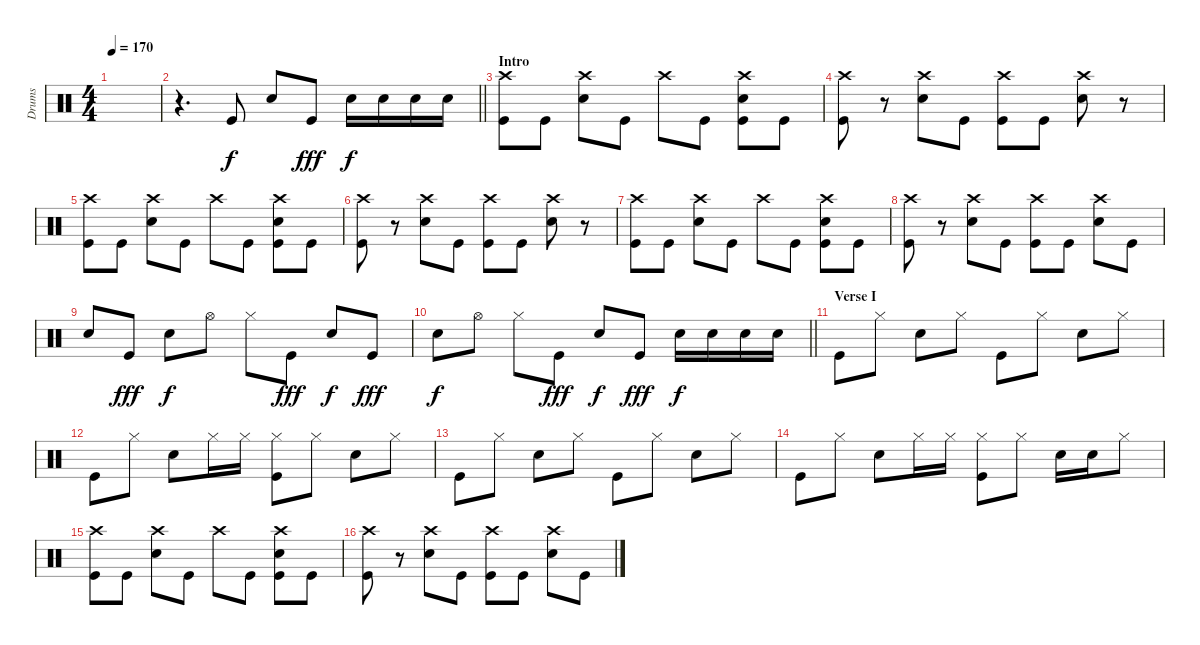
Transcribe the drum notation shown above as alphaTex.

\track ("Drums" "Drums") {instrument percussion}
\staff {score}
\articulation defaults
\ts (4 4)
\tempo 170
\clef neutral
\ks c
|
\barLineRight lightlight
r.4{d} "Kick (hit)".8 "Electric Snare (hit)".8{dy f} "Kick (hit)".8{dy fff} "Electric Snare (hit)".16{dy f} "Electric Snare (hit)".16 "Electric Snare (hit)".16 "Electric Snare (hit)".16 |
\section ("" "Intro")
("Crash high (hit)" "Kick (hit)").8 "Kick (hit)".8 ("Crash high (hit)" "Electric Snare (hit)").8 "Kick (hit)".8 "Crash high (hit)".8 "Kick (hit)".8 ("Crash high (hit)" "Electric Snare (hit)" "Kick (hit)").8 "Kick (hit)".8 |
("Crash high (hit)" "Kick (hit)").8 r.8 ("Crash high (hit)" "Electric Snare (hit)").8 "Kick (hit)".8 ("Crash high (hit)" "Kick (hit)").8 "Kick (hit)".8 ("Crash high (hit)" "Electric Snare (hit)").8 r.8 |
("Crash high (hit)" "Kick (hit)").8 "Kick (hit)".8 ("Crash high (hit)" "Electric Snare (hit)").8 "Kick (hit)".8 "Crash high (hit)".8 "Kick (hit)".8 ("Crash high (hit)" "Electric Snare (hit)" "Kick (hit)").8 "Kick (hit)".8 |
("Crash high (hit)" "Kick (hit)").8 r.8 ("Crash high (hit)" "Electric Snare (hit)").8 "Kick (hit)".8 ("Crash high (hit)" "Kick (hit)").8 "Kick (hit)".8 ("Crash high (hit)" "Electric Snare (hit)").8 r.8 |
("Crash high (hit)" "Kick (hit)").8 "Kick (hit)".8 ("Crash high (hit)" "Electric Snare (hit)").8 "Kick (hit)".8 "Crash high (hit)".8 "Kick (hit)".8 ("Crash high (hit)" "Electric Snare (hit)" "Kick (hit)").8 "Kick (hit)".8 |
("Crash high (hit)" "Kick (hit)").8 r.8 ("Crash high (hit)" "Electric Snare (hit)").8 "Kick (hit)".8 ("Crash high (hit)" "Kick (hit)").8 "Kick (hit)".8 ("Crash high (hit)" "Electric Snare (hit)").8 "Kick (hit)".8 |
"Electric Snare (hit)".8 "Kick (hit)".8{dy fff} "Electric Snare (hit)".8{dy f} "Hi-Hat (open)".8 "Hi-Hat (closed)".8 "Kick (hit)".8{dy fff} "Electric Snare (hit)".8{dy f} "Kick (hit)".8{dy fff} |
\barLineRight lightlight "Electric Snare (hit)".8{dy f} "Hi-Hat (open)".8 "Hi-Hat (closed)".8 "Kick (hit)".8{dy fff} "Electric Snare (hit)".8{dy f} "Kick (hit)".8{dy fff} "Electric Snare (hit)".16{dy f} "Electric Snare (hit)".16 "Electric Snare (hit)".16 "Electric Snare (hit)".16
|
\section ("" "Verse I")
"Kick (hit)".8 "Hi-Hat (closed)".8 "Electric Snare (hit)".8 "Hi-Hat (closed)".8 "Kick (hit)".8 "Hi-Hat (closed)".8 "Electric Snare (hit)".8 "Hi-Hat (closed)".8 |
"Kick (hit)".8 "Hi-Hat (closed)".8 "Electric Snare (hit)".8 "Hi-Hat (closed)".16 "Hi-Hat (closed)".16 ("Hi-Hat (closed)" "Kick (hit)").8 "Hi-Hat (closed)".8 "Electric Snare (hit)".8 "Hi-Hat (closed)".8 |
"Kick (hit)".8 "Hi-Hat (closed)".8 "Electric Snare (hit)".8 "Hi-Hat (closed)".8 "Kick (hit)".8 "Hi-Hat (closed)".8 "Electric Snare (hit)".8 "Hi-Hat (closed)".8 |
"Kick (hit)".8 "Hi-Hat (closed)".8 "Electric Snare (hit)".8 "Hi-Hat (closed)".16 "Hi-Hat (closed)".16 ("Hi-Hat (closed)" "Kick (hit)").8 "Hi-Hat (closed)".8 "Electric Snare (hit)".16 "Electric Snare (hit)".16 "Hi-Hat (closed)".8 |
("Crash high (hit)" "Kick (hit)").8 "Kick (hit)".8 ("Crash high (hit)" "Electric Snare (hit)").8 "Kick (hit)".8 "Crash high (hit)".8 "Kick (hit)".8 ("Crash high (hit)" "Electric Snare (hit)" "Kick (hit)").8 "Kick (hit)".8 |
("Crash high (hit)" "Kick (hit)").8 r.8 ("Crash high (hit)" "Electric Snare (hit)").8 "Kick (hit)".8 ("Crash high (hit)" "Kick (hit)").8 "Kick (hit)".8 ("Crash high (hit)" "Electric Snare (hit)").8 "Kick (hit)".8
